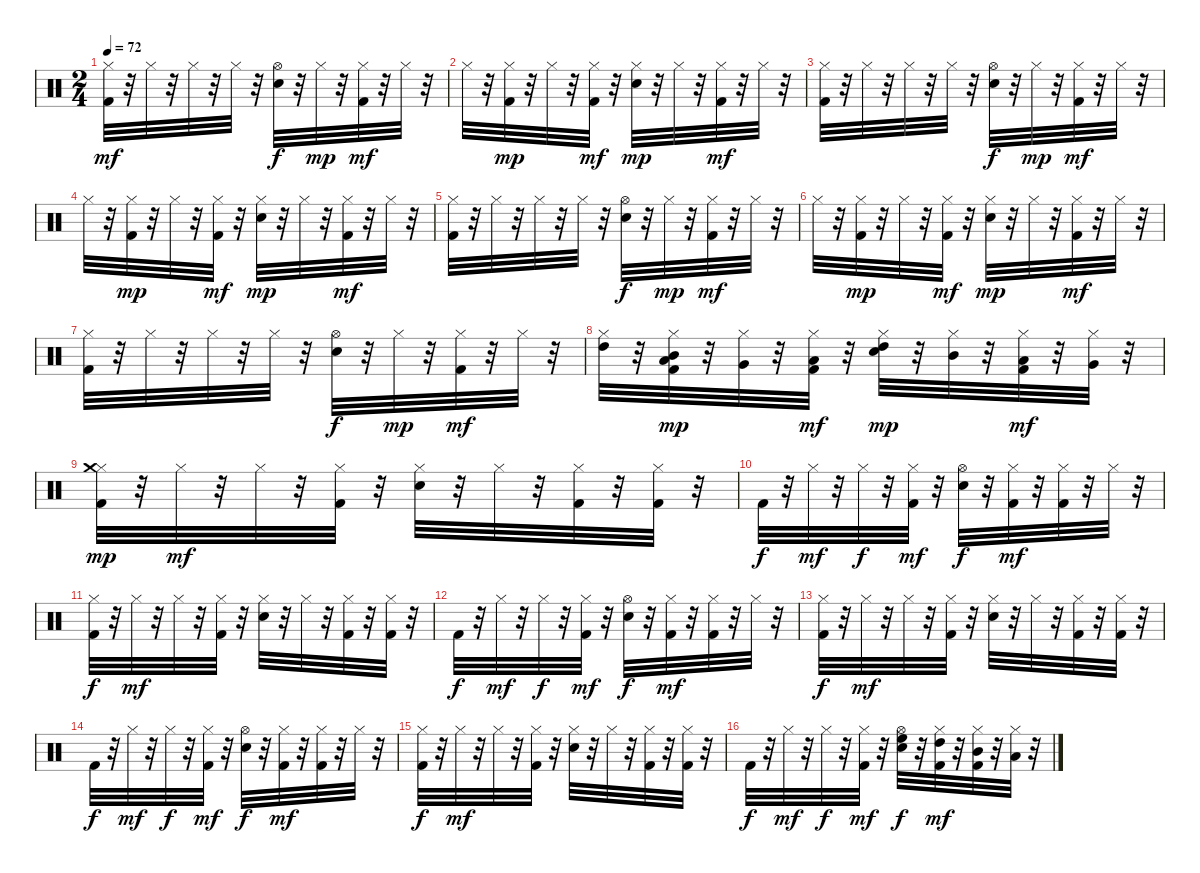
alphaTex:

\track "" {instrument percussion}
\staff {score}
\articulation defaults
\ts (2 4)
\tempo 72
\clef neutral
\ks c
("Hi-Hat (closed)" "Kick (hit) 2").32{dy mf} r.32 "Hi-Hat (closed)".32 r.32 "Hi-Hat (closed)".32 r.32 "Hi-Hat (closed)".32 r.32 ("Snare (hit) 2" "Hi-Hat (open)").32{dy f} r.32 "Hi-Hat (closed)".32{dy mp} r.32 ("Kick (hit) 2" "Hi-Hat (closed)").32{dy mf} r.32 "Hi-Hat (closed)".32 r.32 |
"Hi-Hat (closed)".32 r.32 ("Hi-Hat (closed)" "Kick (hit) 2").32{dy mp} r.32 "Hi-Hat (closed)".32 r.32 ("Kick (hit) 2" "Hi-Hat (closed)").32{dy mf} r.32 ("Hi-Hat (closed)" "Snare (hit) 2").32{dy mp} r.32 "Hi-Hat (closed)".32 r.32 ("Kick (hit) 2" "Hi-Hat (closed)").32{dy mf} r.32 "Hi-Hat (closed)".32 r.32 |
("Hi-Hat (closed)" "Kick (hit) 2").32 r.32 "Hi-Hat (closed)".32 r.32 "Hi-Hat (closed)".32 r.32 "Hi-Hat (closed)".32 r.32 ("Snare (hit) 2" "Hi-Hat (open)").32{dy f} r.32 "Hi-Hat (closed)".32{dy mp} r.32 ("Kick (hit) 2" "Hi-Hat (closed)").32{dy mf} r.32 "Hi-Hat (closed)".32 r.32 |
"Hi-Hat (closed)".32 r.32 ("Hi-Hat (closed)" "Kick (hit) 2").32{dy mp} r.32 "Hi-Hat (closed)".32 r.32 ("Kick (hit) 2" "Hi-Hat (closed)").32{dy mf} r.32 ("Hi-Hat (closed)" "Snare (hit) 2").32{dy mp} r.32 "Hi-Hat (closed)".32 r.32 ("Kick (hit) 2" "Hi-Hat (closed)").32{dy mf} r.32 "Hi-Hat (closed)".32 r.32 |
("Hi-Hat (closed)" "Kick (hit) 2").32 r.32 "Hi-Hat (closed)".32 r.32 "Hi-Hat (closed)".32 r.32 "Hi-Hat (closed)".32 r.32 ("Snare (hit) 2" "Hi-Hat (open)").32{dy f} r.32 "Hi-Hat (closed)".32{dy mp} r.32 ("Kick (hit) 2" "Hi-Hat (closed)").32{dy mf} r.32 "Hi-Hat (closed)".32 r.32 |
"Hi-Hat (closed)".32 r.32 ("Hi-Hat (closed)" "Kick (hit) 2").32{dy mp} r.32 "Hi-Hat (closed)".32 r.32 ("Kick (hit) 2" "Hi-Hat (closed)").32{dy mf} r.32 ("Hi-Hat (closed)" "Snare (hit) 2").32{dy mp} r.32 "Hi-Hat (closed)".32 r.32 ("Kick (hit) 2" "Hi-Hat (closed)").32{dy mf} r.32 "Hi-Hat (closed)".32 r.32 |
("Hi-Hat (closed)" "Kick (hit) 2").32 r.32 "Hi-Hat (closed)".32 r.32 "Hi-Hat (closed)".32 r.32 "Hi-Hat (closed)".32 r.32 ("Snare (hit) 2" "Hi-Hat (open)").32{dy f} r.32 "Hi-Hat (closed)".32{dy mp} r.32 ("Kick (hit) 2" "Hi-Hat (closed)").32{dy mf} r.32 "Hi-Hat (closed)".32 r.32 |
("High Tom (hit)" "Hi-Hat (closed)").32 r.32 ("Mid Tom (hit)" "Hi-Hat (closed)" "Kick (hit) 2" "Low Tom (hit)").32{dy mp} r.32 ("Very Low Tom (hit)" "Hi-Hat (closed)").32 r.32 ("Low Floor Tom (hit)" "Kick (hit) 2" "Hi-Hat (closed)").32{dy mf} r.32 ("High Tom (hit)" "Hi-Hat (closed)" "Snare (hit) 2").32{dy mp} r.32 ("Mid Tom (hit)" "Hi-Hat (closed)").32 r.32 ("Low Tom (hit)" "Kick (hit) 2" "Hi-Hat (closed)").32{dy mf} r.32 ("Very Low Tom (hit)" "Hi-Hat (closed)").32 r.32 |
("Hi-Hat (closed)" "Kick (hit) 2" "Crash medium (hit)").32{dy mp} r.32 "Hi-Hat (closed)".32{dy mf} r.32 "Hi-Hat (closed)".32 r.32 ("Hi-Hat (closed)" "Kick (hit) 2").32 r.32 ("Hi-Hat (closed)" "Snare (hit) 2").32 r.32 "Hi-Hat (closed)".32 r.32 ("Kick (hit) 2" "Hi-Hat (closed)").32 r.32 ("Kick (hit) 2" "Hi-Hat (closed)").32 r.32 |
"Kick (hit) 2".32{dy f} r.32 "Hi-Hat (closed)".32{dy mf} r.32 "Hi-Hat (closed)".32{dy f} r.32 ("Kick (hit) 2" "Hi-Hat (closed)").32{dy mf} r.32 ("Snare (hit) 2" "Hi-Hat (open)").32{dy f} r.32 ("Kick (hit) 2" "Hi-Hat (closed)").32{dy mf} r.32 ("Hi-Hat (closed)" "Kick (hit) 2").32 r.32 "Hi-Hat (closed)".32 r.32 |
("Hi-Hat (closed)" "Kick (hit) 2").32{dy f} r.32 "Hi-Hat (closed)".32{dy mf} r.32 "Hi-Hat (closed)".32 r.32 ("Hi-Hat (closed)" "Kick (hit) 2").32 r.32 ("Hi-Hat (closed)" "Snare (hit) 2").32 r.32 "Hi-Hat (closed)".32 r.32 ("Kick (hit) 2" "Hi-Hat (closed)").32 r.32 ("Kick (hit) 2" "Hi-Hat (closed)").32 r.32 |
"Kick (hit) 2".32{dy f} r.32 "Hi-Hat (closed)".32{dy mf} r.32 "Hi-Hat (closed)".32{dy f} r.32 ("Kick (hit) 2" "Hi-Hat (closed)").32{dy mf} r.32 ("Snare (hit) 2" "Hi-Hat (open)").32{dy f} r.32 ("Kick (hit) 2" "Hi-Hat (closed)").32{dy mf} r.32 ("Hi-Hat (closed)" "Kick (hit) 2").32 r.32 "Hi-Hat (closed)".32 r.32 |
("Hi-Hat (closed)" "Kick (hit) 2").32{dy f} r.32 "Hi-Hat (closed)".32{dy mf} r.32 "Hi-Hat (closed)".32 r.32 ("Hi-Hat (closed)" "Kick (hit) 2").32 r.32 ("Hi-Hat (closed)" "Snare (hit) 2").32 r.32 "Hi-Hat (closed)".32 r.32 ("Kick (hit) 2" "Hi-Hat (closed)").32 r.32 ("Kick (hit) 2" "Hi-Hat (closed)").32 r.32 |
"Kick (hit) 2".32{dy f} r.32 "Hi-Hat (closed)".32{dy mf} r.32 "Hi-Hat (closed)".32{dy f} r.32 ("Kick (hit) 2" "Hi-Hat (closed)").32{dy mf} r.32 ("Snare (hit) 2" "Hi-Hat (open)").32{dy f} r.32 ("Kick (hit) 2" "Hi-Hat (closed)").32{dy mf} r.32 ("Hi-Hat (closed)" "Kick (hit) 2").32 r.32 "Hi-Hat (closed)".32 r.32 |
("Hi-Hat (closed)" "Kick (hit) 2").32{dy f} r.32 "Hi-Hat (closed)".32{dy mf} r.32 "Hi-Hat (closed)".32 r.32 ("Hi-Hat (closed)" "Kick (hit) 2").32 r.32 ("Hi-Hat (closed)" "Snare (hit) 2").32 r.32 "Hi-Hat (closed)".32 r.32 ("Kick (hit) 2" "Hi-Hat (closed)").32 r.32 ("Kick (hit) 2" "Hi-Hat (closed)").32 r.32 |
"Kick (hit) 2".32{dy f} r.32 "Hi-Hat (closed)".32{dy mf} r.32 "Hi-Hat (closed)".32{dy f} r.32 ("Kick (hit) 2" "Hi-Hat (closed)").32{dy mf} r.32 ("Snare (hit) 2" "Hi-Hat (open)" "High Floor Tom (hit)").32{dy f} r.32 ("Kick (hit) 2" "Hi-Hat (closed)" "High Tom (hit)").32{dy mf} r.32 ("Hi-Hat (closed)" "Kick (hit) 2" "Mid Tom (hit)").32 r.32 ("Low Tom (hit)" "Hi-Hat (closed)").32 r.32
